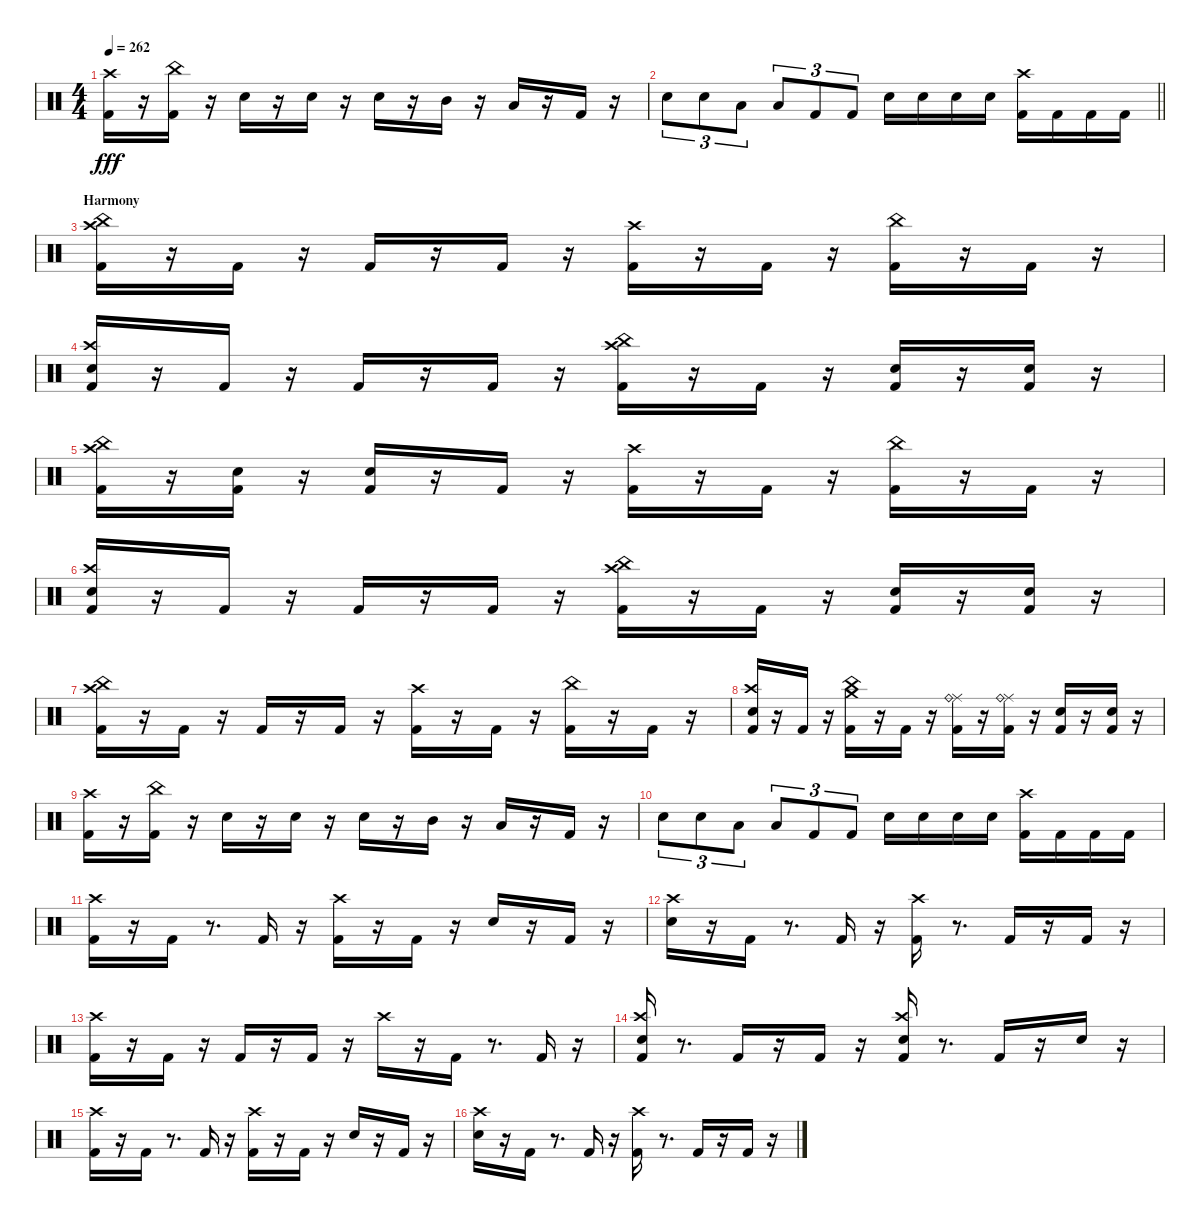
\track "" {instrument percussion}
\staff {score}
\articulation defaults
\ts (4 4)
\tempo 262
\clef neutral
\ks c
("Kick (hit) 2" "Crash high (hit)").16{dy fff} r.16 ("Kick (hit) 2" "China (hit)").16 r.16 "Snare (hit) 2".16 r.16 "Snare (hit) 2".16 r.16 "Snare (hit) 2".16 r.16 "Mid Tom (hit)".16 r.16 "Low Floor Tom (hit)".16 r.16 "Kick (hit) 2".16 r.16 |
\barLineRight lightlight "Snare (hit) 2".8{tu (3 2)} "Snare (hit) 2".8{tu (3 2)} "Low Tom (hit)".8{tu (3 2)} "Low Tom (hit)".8{tu (3 2)} "Kick (hit) 2".8{tu (3 2)} "Kick (hit) 2".8{tu (3 2)} "Snare (hit) 2".16 "Snare (hit) 2".16 "Snare (hit) 2".16 "Snare (hit) 2".16
("Kick (hit) 2" "Crash high (hit)").16 "Kick (hit) 2".16 "Kick (hit) 2".16 "Kick (hit) 2".16 |
\section ("" "Harmony")
("Kick (hit) 2" "Crash high (hit)" "China (hit)").16 r.16 "Kick (hit) 2".16 r.16 "Kick (hit) 2".16 r.16 "Kick (hit) 2".16 r.16 ("Kick (hit) 2" "Crash high (hit)").16 r.16 "Kick (hit) 2".16 r.16 ("Kick (hit) 2" "China (hit)").16 r.16 "Kick (hit) 2".16 r.16 |
("Kick (hit) 2" "Snare (hit) 2" "Crash high (hit)").16 r.16 "Kick (hit) 2".16 r.16 "Kick (hit) 2".16 r.16 "Kick (hit) 2".16 r.16 ("Kick (hit) 2" "Crash high (hit)" "China (hit)").16 r.16 "Kick (hit) 2".16 r.16 ("Kick (hit) 2" "Snare (hit) 2").16 r.16 ("Kick (hit) 2" "Snare (hit) 2").16 r.16 |
("Kick (hit) 2" "Crash high (hit)" "China (hit)").16 r.16 ("Kick (hit) 2" "Snare (hit) 2").16 r.16 ("Kick (hit) 2" "Snare (hit) 2").16 r.16 "Kick (hit) 2".16 r.16 ("Kick (hit) 2" "Crash high (hit)").16 r.16 "Kick (hit) 2".16 r.16 ("Kick (hit) 2" "China (hit)").16 r.16 "Kick (hit) 2".16 r.16 |
("Kick (hit) 2" "Snare (hit) 2" "Crash high (hit)").16 r.16 "Kick (hit) 2".16 r.16 "Kick (hit) 2".16 r.16 "Kick (hit) 2".16 r.16 ("Kick (hit) 2" "Crash high (hit)" "China (hit)").16 r.16 "Kick (hit) 2".16 r.16 ("Kick (hit) 2" "Snare (hit) 2").16 r.16 ("Kick (hit) 2" "Snare (hit) 2").16 r.16 |
("Kick (hit) 2" "Crash high (hit)" "China (hit)").16 r.16 "Kick (hit) 2".16 r.16 "Kick (hit) 2".16 r.16 "Kick (hit) 2".16 r.16 ("Kick (hit) 2" "Crash high (hit)").16 r.16 "Kick (hit) 2".16 r.16 ("Kick (hit) 2" "China (hit)").16 r.16 "Kick (hit) 2".16 r.16 |
("Kick (hit) 2" "Snare (hit) 2" "Crash high (hit)").16 r.16 "Kick (hit) 2".16 r.16 ("Kick (hit) 2" "China (hit)" "Crash medium (hit)").16 r.16 "Kick (hit) 2".16 r.16 ("Kick (hit) 2" "Ride (middle)" "Ride (bell)").16 r.16 ("Kick (hit) 2" "Ride (middle)" "Ride (bell)").16 r.16 ("Kick (hit) 2" "Snare (hit) 2").16 r.16 ("Kick (hit) 2" "Snare (hit) 2").16 r.16 |
("Kick (hit) 2" "Crash high (hit)").16 r.16 ("Kick (hit) 2" "China (hit)").16 r.16 "Snare (hit) 2".16 r.16 "Snare (hit) 2".16 r.16 "Snare (hit) 2".16 r.16 "Mid Tom (hit)".16 r.16 "Low Floor Tom (hit)".16 r.16 "Kick (hit) 2".16 r.16 |
"Snare (hit) 2".8{tu (3 2)} "Snare (hit) 2".8{tu (3 2)} "Low Tom (hit)".8{tu (3 2)} "Low Tom (hit)".8{tu (3 2)} "Kick (hit) 2".8{tu (3 2)} "Kick (hit) 2".8{tu (3 2)} "Snare (hit) 2".16 "Snare (hit) 2".16 "Snare (hit) 2".16 "Snare (hit) 2".16 ("Kick (hit) 2" "Crash high (hit)").16 "Kick (hit) 2".16 "Kick (hit) 2".16 "Kick (hit) 2".16 |
("Kick (hit) 2" "Crash high (hit)").16 r.16 "Kick (hit) 2".16 r.8{d} "Kick (hit) 2".16 r.16 ("Kick (hit) 2" "Crash high (hit)").16 r.16 "Kick (hit) 2".16 r.16 "Electric Snare (hit)".16 r.16 "Kick (hit) 2".16 r.16 |
("Electric Snare (hit)" "Crash high (hit)").16 r.16 "Kick (hit) 2".16 r.8{d} "Kick (hit) 2".16 r.16 ("Kick (hit) 2" "Crash high (hit)").16 r.8{d} "Kick (hit) 2".16 r.16 "Kick (hit) 2".16 r.16 |
("Kick (hit) 2" "Crash high (hit)").16 r.16 "Kick (hit) 2".16 r.16 "Kick (hit) 2".16 r.16 "Kick (hit) 2".16 r.16 "Crash high (hit)".16 r.16 "Kick (hit) 2".16 r.8{d} "Kick (hit) 2".16 r.16 |
("Kick (hit) 2" "Electric Snare (hit)" "Crash high (hit)").16 r.8{d} "Kick (hit) 2".16 r.16 "Kick (hit) 2".16 r.16 ("Kick (hit) 2" "Electric Snare (hit)" "Crash high (hit)").16 r.8{d} "Kick (hit) 2".16 r.16 "Snare (hit) 2".16 r.16 |
("Kick (hit) 2" "Crash high (hit)").16 r.16 "Kick (hit) 2".16 r.8{d} "Kick (hit) 2".16 r.16 ("Kick (hit) 2" "Crash high (hit)").16 r.16 "Kick (hit) 2".16 r.16 "Electric Snare (hit)".16 r.16 "Kick (hit) 2".16 r.16 |
("Electric Snare (hit)" "Crash high (hit)").16 r.16 "Kick (hit) 2".16 r.8{d} "Kick (hit) 2".16 r.16 ("Kick (hit) 2" "Crash high (hit)").16 r.8{d} "Kick (hit) 2".16 r.16 "Kick (hit) 2".16 r.16
